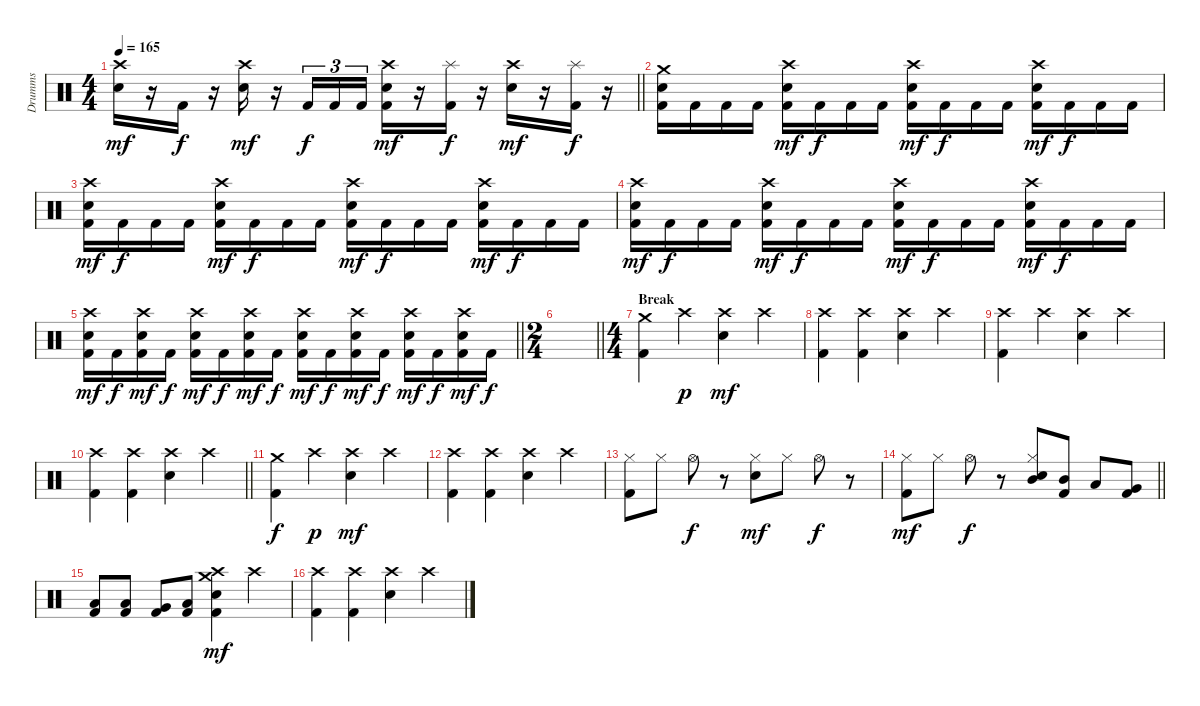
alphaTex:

\track ("Drumms" "Drumms") {instrument percussion}
\staff {score}
\articulation defaults
\ts (4 4)
\tempo 165
\clef neutral
\barLineRight lightlight
\ks c
("Crash high (hit)" "Snare (hit) 2").16{dy mf} r.16 "Kick (hit) 2".16{dy f} r.16 ("Crash high (hit)" "Snare (hit) 2").16{dy mf} r.16 "Kick (hit) 2".16{tu (3 2) dy f} "Kick (hit) 2".16{tu (3 2)} "Kick (hit) 2".16{tu (3 2)} ("Crash high (hit)" "Snare (hit) 2" "Kick (hit) 2").16{dy mf} r.16 ("Splash (hit)" "Kick (hit) 2").16{dy f} r.16 ("Crash high (hit)" "Snare (hit) 2").16{dy mf} r.16 ("Splash (hit)" "Kick (hit) 2").16{dy f} r.16 |
("Crash medium (hit)" "Snare (hit) 2" "Kick (hit) 2").16 "Kick (hit) 2".16 "Kick (hit) 2".16 "Kick (hit) 2".16 ("Crash high (hit)" "Snare (hit) 2" "Kick (hit) 2").16{dy mf} "Kick (hit) 2".16{dy f} "Kick (hit) 2".16 "Kick (hit) 2".16 ("Crash high (hit)" "Snare (hit) 2" "Kick (hit) 2").16{dy mf} "Kick (hit) 2".16{dy f} "Kick (hit) 2".16 "Kick (hit) 2".16 ("Crash high (hit)" "Snare (hit) 2" "Kick (hit) 2").16{dy mf} "Kick (hit) 2".16{dy f} "Kick (hit) 2".16 "Kick (hit) 2".16 |
("Crash high (hit)" "Snare (hit) 2" "Kick (hit) 2").16{dy mf} "Kick (hit) 2".16{dy f} "Kick (hit) 2".16 "Kick (hit) 2".16 ("Crash high (hit)" "Snare (hit) 2" "Kick (hit) 2").16{dy mf} "Kick (hit) 2".16{dy f} "Kick (hit) 2".16 "Kick (hit) 2".16 ("Crash high (hit)" "Snare (hit) 2" "Kick (hit) 2").16{dy mf} "Kick (hit) 2".16{dy f} "Kick (hit) 2".16 "Kick (hit) 2".16 ("Crash high (hit)" "Snare (hit) 2" "Kick (hit) 2").16{dy mf} "Kick (hit) 2".16{dy f} "Kick (hit) 2".16 "Kick (hit) 2".16 |
("Crash high (hit)" "Snare (hit) 2" "Kick (hit) 2").16{dy mf} "Kick (hit) 2".16{dy f} "Kick (hit) 2".16 "Kick (hit) 2".16 ("Crash high (hit)" "Snare (hit) 2" "Kick (hit) 2").16{dy mf} "Kick (hit) 2".16{dy f} "Kick (hit) 2".16 "Kick (hit) 2".16 ("Crash high (hit)" "Snare (hit) 2" "Kick (hit) 2").16{dy mf} "Kick (hit) 2".16{dy f} "Kick (hit) 2".16 "Kick (hit) 2".16 ("Crash high (hit)" "Snare (hit) 2" "Kick (hit) 2").16{dy mf} "Kick (hit) 2".16{dy f} "Kick (hit) 2".16 "Kick (hit) 2".16 |
\barLineRight lightlight
("Crash high (hit)" "Snare (hit) 2" "Kick (hit) 2").16{dy mf} "Kick (hit) 2".16{dy f} ("Crash high (hit)" "Snare (hit) 2" "Kick (hit) 2").16{dy mf} "Kick (hit) 2".16{dy f} ("Crash high (hit)" "Snare (hit) 2" "Kick (hit) 2").16{dy mf} "Kick (hit) 2".16{dy f} ("Crash high (hit)" "Snare (hit) 2" "Kick (hit) 2").16{dy mf} "Kick (hit) 2".16{dy f} ("Crash high (hit)" "Snare (hit) 2" "Kick (hit) 2").16{dy mf} "Kick (hit) 2".16{dy f} ("Crash high (hit)" "Snare (hit) 2" "Kick (hit) 2").16{dy mf} "Kick (hit) 2".16{dy f} ("Crash high (hit)" "Snare (hit) 2" "Kick (hit) 2").16{dy mf} "Kick (hit) 2".16{dy f} ("Crash high (hit)" "Snare (hit) 2" "Kick (hit) 2").16{dy mf} "Kick (hit) 2".16{dy f} |
\ts (2 4)
\barLineRight lightlight
|
\ts (4 4)
\section ("" "Break")
("Crash medium (hit)" "Kick (hit) 2").4 "Crash high (hit)".4{dy p} ("Crash high (hit)" "Snare (hit) 2").4{dy mf} "Crash high (hit)".4 |
("Crash high (hit)" "Kick (hit) 2").4 ("Crash high (hit)" "Kick (hit) 2").4 ("Crash high (hit)" "Snare (hit) 2").4 "Crash high (hit)".4 |
("Crash high (hit)" "Kick (hit) 2").4 "Crash high (hit)".4 ("Crash high (hit)" "Snare (hit) 2").4 "Crash high (hit)".4 |
\barLineRight lightlight
("Crash high (hit)" "Kick (hit) 2").4 ("Crash high (hit)" "Kick (hit) 2").4 ("Crash high (hit)" "Snare (hit) 2").4 "Crash high (hit)".4 |
("Crash medium (hit)" "Kick (hit) 2").4{dy f} "Crash high (hit)".4{dy p} ("Crash high (hit)" "Snare (hit) 2").4{dy mf} "Crash high (hit)".4 |
("Crash high (hit)" "Kick (hit) 2").4 ("Crash high (hit)" "Kick (hit) 2").4 ("Crash high (hit)" "Snare (hit) 2").4 "Crash high (hit)".4 |
("Hi-Hat (closed)" "Kick (hit) 2").8 "Hi-Hat (closed)".8 "Hi-Hat (open)".8{dy f} r.8 ("Hi-Hat (closed)" "Snare (hit) 2").8{dy mf} "Hi-Hat (closed)".8 "Hi-Hat (open)".8{dy f} r.8 |
\barLineRight lightlight
("Hi-Hat (closed)" "Kick (hit) 2").8{dy mf} "Hi-Hat (closed)".8 "Hi-Hat (open)".8{dy f} r.8 ("Mid Tom (hit)" "Hi-Hat (closed)" "Snare (hit) 2").8 ("Mid Tom (hit)" "Kick (hit) 2").8 "Low Tom (hit)".8 ("Very Low Tom (hit)" "Kick (hit) 2").8 |
("Low Tom (hit)" "Kick (hit) 2").8 ("Low Tom (hit)" "Kick (hit) 2").8 ("Very Low Tom (hit)" "Kick (hit) 2").8 ("Low Floor Tom (hit)" "Kick (hit) 2").8 ("Crash medium (hit)" "Crash high (hit)" "Snare (hit) 2" "Kick (hit) 2").4{dy mf} "Crash high (hit)".4 |
("Crash high (hit)" "Kick (hit) 2").4 ("Crash high (hit)" "Kick (hit) 2").4 ("Crash high (hit)" "Snare (hit) 2").4 "Crash high (hit)".4
